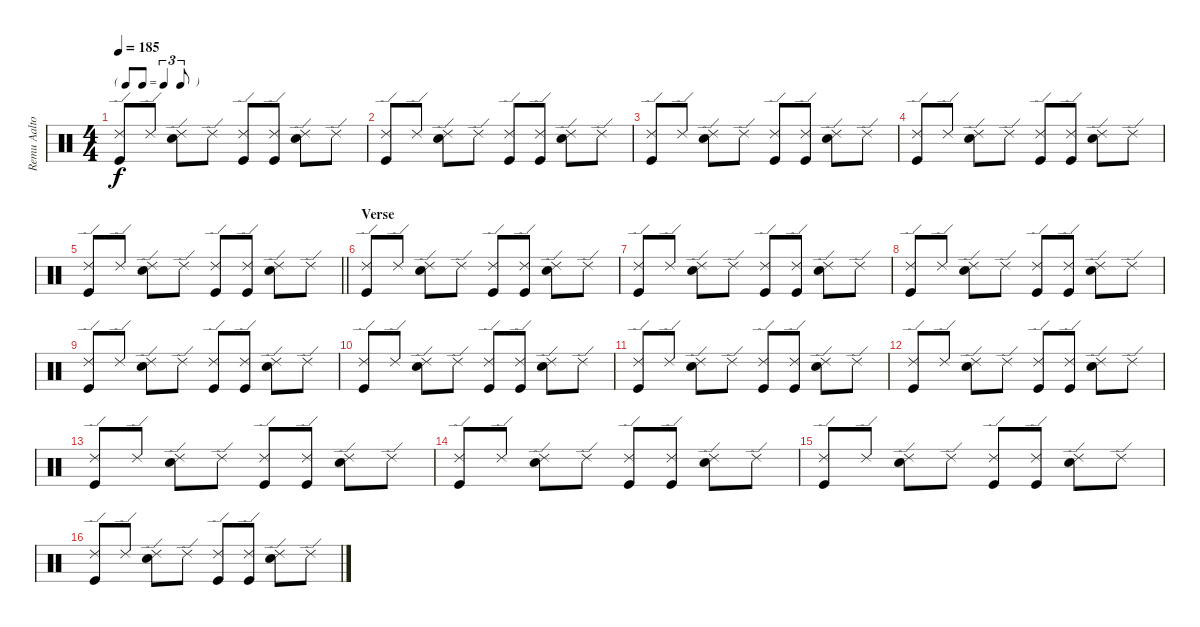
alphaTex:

\track ("Remu Aaltonen" "Remu Aalto") {instrument percussion}
\staff {score}
\articulation defaults
\ts (4 4)
\tf triplet8th
\tempo 185
\clef neutral
\ks c
("Ride (edge) 2" "Kick (hit)").8{dy f} "Ride (edge) 2".8 ("Ride (edge) 2" "Snare (hit) 2").8 "Ride (edge) 2".8 ("Ride (edge) 2" "Kick (hit)").8 ("Ride (edge) 2" "Kick (hit)").8 ("Ride (edge) 2" "Snare (hit) 2").8 "Ride (edge) 2".8 |
("Ride (edge) 2" "Kick (hit)").8 "Ride (edge) 2".8 ("Ride (edge) 2" "Snare (hit) 2").8 "Ride (edge) 2".8 ("Ride (edge) 2" "Kick (hit)").8 ("Ride (edge) 2" "Kick (hit)").8 ("Ride (edge) 2" "Snare (hit) 2").8 "Ride (edge) 2".8 |
("Ride (edge) 2" "Kick (hit)").8 "Ride (edge) 2".8 ("Ride (edge) 2" "Snare (hit) 2").8 "Ride (edge) 2".8 ("Ride (edge) 2" "Kick (hit)").8 ("Ride (edge) 2" "Kick (hit)").8 ("Ride (edge) 2" "Snare (hit) 2").8 "Ride (edge) 2".8 |
("Ride (edge) 2" "Kick (hit)").8 "Ride (edge) 2".8 ("Ride (edge) 2" "Snare (hit) 2").8 "Ride (edge) 2".8 ("Ride (edge) 2" "Kick (hit)").8 ("Ride (edge) 2" "Kick (hit)").8 ("Ride (edge) 2" "Snare (hit) 2").8 "Ride (edge) 2".8 |
\barLineRight lightlight
("Ride (edge) 2" "Kick (hit)").8 "Ride (edge) 2".8 ("Ride (edge) 2" "Snare (hit) 2").8 "Ride (edge) 2".8 ("Ride (edge) 2" "Kick (hit)").8 ("Ride (edge) 2" "Kick (hit)").8 ("Ride (edge) 2" "Snare (hit) 2").8 "Ride (edge) 2".8 |
\section ("" "Verse")
("Ride (edge) 2" "Kick (hit)").8 "Ride (edge) 2".8 ("Ride (edge) 2" "Snare (hit) 2").8 "Ride (edge) 2".8 ("Ride (edge) 2" "Kick (hit)").8 ("Ride (edge) 2" "Kick (hit)").8 ("Ride (edge) 2" "Snare (hit) 2").8 "Ride (edge) 2".8 |
("Ride (edge) 2" "Kick (hit)").8 "Ride (edge) 2".8 ("Ride (edge) 2" "Snare (hit) 2").8 "Ride (edge) 2".8 ("Ride (edge) 2" "Kick (hit)").8 ("Ride (edge) 2" "Kick (hit)").8 ("Ride (edge) 2" "Snare (hit) 2").8 "Ride (edge) 2".8 |
("Ride (edge) 2" "Kick (hit)").8 "Ride (edge) 2".8 ("Ride (edge) 2" "Snare (hit) 2").8 "Ride (edge) 2".8 ("Ride (edge) 2" "Kick (hit)").8 ("Ride (edge) 2" "Kick (hit)").8 ("Ride (edge) 2" "Snare (hit) 2").8 "Ride (edge) 2".8 |
("Ride (edge) 2" "Kick (hit)").8 "Ride (edge) 2".8 ("Ride (edge) 2" "Snare (hit) 2").8 "Ride (edge) 2".8 ("Ride (edge) 2" "Kick (hit)").8 ("Ride (edge) 2" "Kick (hit)").8 ("Ride (edge) 2" "Snare (hit) 2").8 "Ride (edge) 2".8 |
("Ride (edge) 2" "Kick (hit)").8 "Ride (edge) 2".8 ("Ride (edge) 2" "Snare (hit) 2").8 "Ride (edge) 2".8 ("Ride (edge) 2" "Kick (hit)").8 ("Ride (edge) 2" "Kick (hit)").8 ("Ride (edge) 2" "Snare (hit) 2").8 "Ride (edge) 2".8 |
("Ride (edge) 2" "Kick (hit)").8 "Ride (edge) 2".8 ("Ride (edge) 2" "Snare (hit) 2").8 "Ride (edge) 2".8 ("Ride (edge) 2" "Kick (hit)").8 ("Ride (edge) 2" "Kick (hit)").8 ("Ride (edge) 2" "Snare (hit) 2").8 "Ride (edge) 2".8 |
("Ride (edge) 2" "Kick (hit)").8 "Ride (edge) 2".8 ("Ride (edge) 2" "Snare (hit) 2").8 "Ride (edge) 2".8 ("Ride (edge) 2" "Kick (hit)").8 ("Ride (edge) 2" "Kick (hit)").8 ("Ride (edge) 2" "Snare (hit) 2").8 "Ride (edge) 2".8 |
("Ride (edge) 2" "Kick (hit)").8 "Ride (edge) 2".8 ("Ride (edge) 2" "Snare (hit) 2").8 "Ride (edge) 2".8 ("Ride (edge) 2" "Kick (hit)").8 ("Ride (edge) 2" "Kick (hit)").8 ("Ride (edge) 2" "Snare (hit) 2").8 "Ride (edge) 2".8 |
("Ride (edge) 2" "Kick (hit)").8 "Ride (edge) 2".8 ("Ride (edge) 2" "Snare (hit) 2").8 "Ride (edge) 2".8 ("Ride (edge) 2" "Kick (hit)").8 ("Ride (edge) 2" "Kick (hit)").8 ("Ride (edge) 2" "Snare (hit) 2").8 "Ride (edge) 2".8 |
("Ride (edge) 2" "Kick (hit)").8 "Ride (edge) 2".8 ("Ride (edge) 2" "Snare (hit) 2").8 "Ride (edge) 2".8 ("Ride (edge) 2" "Kick (hit)").8 ("Ride (edge) 2" "Kick (hit)").8 ("Ride (edge) 2" "Snare (hit) 2").8 "Ride (edge) 2".8 |
("Ride (edge) 2" "Kick (hit)").8 "Ride (edge) 2".8 ("Ride (edge) 2" "Snare (hit) 2").8 "Ride (edge) 2".8 ("Ride (edge) 2" "Kick (hit)").8 ("Ride (edge) 2" "Kick (hit)").8 ("Ride (edge) 2" "Snare (hit) 2").8 "Ride (edge) 2".8
